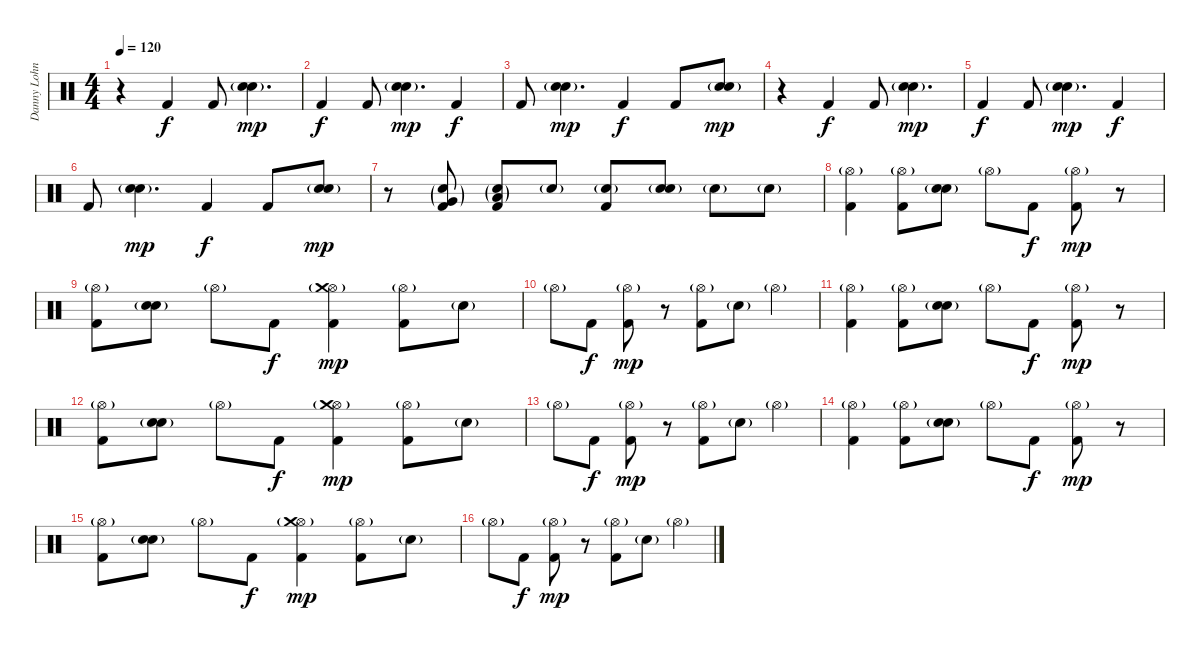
\track ("Danny Lohner" "Danny Lohn") {instrument percussion}
\staff {score}
\articulation defaults
\ts (4 4)
\tempo 120
\clef neutral
\ks c
r.4{dy mp} "Kick (hit) 2".4{dy f} "Kick (hit) 2".8 ("Hand Clap (hit)"{g} "Electric Snare (hit)"{g}).4{d dy mp} |
"Kick (hit) 2".4{dy f} "Kick (hit) 2".8 ("Hand Clap (hit)"{g} "Electric Snare (hit)"{g}).4{d dy mp} "Kick (hit) 2".4{dy f} |
"Kick (hit) 2".8 ("Hand Clap (hit)"{g} "Electric Snare (hit)"{g}).4{d dy mp} "Kick (hit) 2".4{dy f} "Kick (hit) 2".8 ("Hand Clap (hit)"{g} "Electric Snare (hit)"{g}).8{dy mp} |
r.4 "Kick (hit) 2".4{dy f} "Kick (hit) 2".8 ("Hand Clap (hit)"{g} "Electric Snare (hit)"{g}).4{d dy mp} |
"Kick (hit) 2".4{dy f} "Kick (hit) 2".8 ("Hand Clap (hit)"{g} "Electric Snare (hit)"{g}).4{d dy mp} "Kick (hit) 2".4{dy f} |
"Kick (hit) 2".8 ("Hand Clap (hit)"{g} "Electric Snare (hit)"{g}).4{d dy mp} "Kick (hit) 2".4{dy f} "Kick (hit) 2".8 ("Hand Clap (hit)"{g} "Electric Snare (hit)"{g}).8{dy mp} |
r.8 ("Very Low Tom (hit)"{g} "Electric Snare (hit)"{g} "Kick (hit) 2").8 ("Low Floor Tom (hit)"{g} "Electric Snare (hit)"{g} "Kick (hit) 2").8 "Electric Snare (hit)"{g}.8 ("Electric Snare (hit)"{g} "Kick (hit) 2").8 ("Hand Clap (hit)" "Electric Snare (hit)"{g}).8 "Electric Snare (hit)"{g}.8 "Electric Snare (hit)"{g}.8 |
("Hi-Hat (open)"{g} "Kick (hit) 2").4 ("Hi-Hat (open)"{g} "Kick (hit) 2").8 ("Hand Clap (hit)"{g} "Electric Snare (hit)"{g}).8 "Hi-Hat (open)"{g}.8 "Kick (hit) 2".8{dy f} ("Hi-Hat (open)"{g} "Kick (hit) 2").8{dy mp} r.8 |
("Hi-Hat (open)"{g} "Kick (hit) 2").8 ("Hand Clap (hit)"{g} "Electric Snare (hit)"{g}).8 "Hi-Hat (open)"{g}.8 "Kick (hit) 2".8{dy f} ("Hi-Hat (open)"{g} "Crash medium (hit)"{g} "Kick (hit) 2").4{dy mp} ("Hi-Hat (open)"{g} "Kick (hit) 2").8 "Electric Snare (hit)"{g}.8 |
"Hi-Hat (open)"{g}.8 "Kick (hit) 2".8{dy f} ("Hi-Hat (open)"{g} "Kick (hit) 2").8{dy mp} r.8 ("Hi-Hat (open)"{g} "Kick (hit) 2").8 "Electric Snare (hit)"{g}.8 "Hi-Hat (open)"{g}.4 |
("Hi-Hat (open)"{g} "Kick (hit) 2").4 ("Hi-Hat (open)"{g} "Kick (hit) 2").8 ("Hand Clap (hit)"{g} "Electric Snare (hit)"{g}).8 "Hi-Hat (open)"{g}.8 "Kick (hit) 2".8{dy f} ("Hi-Hat (open)"{g} "Kick (hit) 2").8{dy mp} r.8 |
("Hi-Hat (open)"{g} "Kick (hit) 2").8 ("Hand Clap (hit)"{g} "Electric Snare (hit)"{g}).8 "Hi-Hat (open)"{g}.8 "Kick (hit) 2".8{dy f} ("Hi-Hat (open)"{g} "Crash medium (hit)"{g} "Kick (hit) 2").4{dy mp} ("Hi-Hat (open)"{g} "Kick (hit) 2").8 "Electric Snare (hit)"{g}.8 |
"Hi-Hat (open)"{g}.8 "Kick (hit) 2".8{dy f} ("Hi-Hat (open)"{g} "Kick (hit) 2").8{dy mp} r.8 ("Hi-Hat (open)"{g} "Kick (hit) 2").8 "Electric Snare (hit)"{g}.8 "Hi-Hat (open)"{g}.4 |
("Hi-Hat (open)"{g} "Kick (hit) 2").4 ("Hi-Hat (open)"{g} "Kick (hit) 2").8 ("Hand Clap (hit)"{g} "Electric Snare (hit)"{g}).8 "Hi-Hat (open)"{g}.8 "Kick (hit) 2".8{dy f} ("Hi-Hat (open)"{g} "Kick (hit) 2").8{dy mp} r.8 |
("Hi-Hat (open)"{g} "Kick (hit) 2").8 ("Hand Clap (hit)"{g} "Electric Snare (hit)"{g}).8 "Hi-Hat (open)"{g}.8 "Kick (hit) 2".8{dy f} ("Hi-Hat (open)"{g} "Crash medium (hit)"{g} "Kick (hit) 2").4{dy mp} ("Hi-Hat (open)"{g} "Kick (hit) 2").8 "Electric Snare (hit)"{g}.8 |
"Hi-Hat (open)"{g}.8 "Kick (hit) 2".8{dy f} ("Hi-Hat (open)"{g} "Kick (hit) 2").8{dy mp} r.8 ("Hi-Hat (open)"{g} "Kick (hit) 2").8 "Electric Snare (hit)"{g}.8 "Hi-Hat (open)"{g}.4
